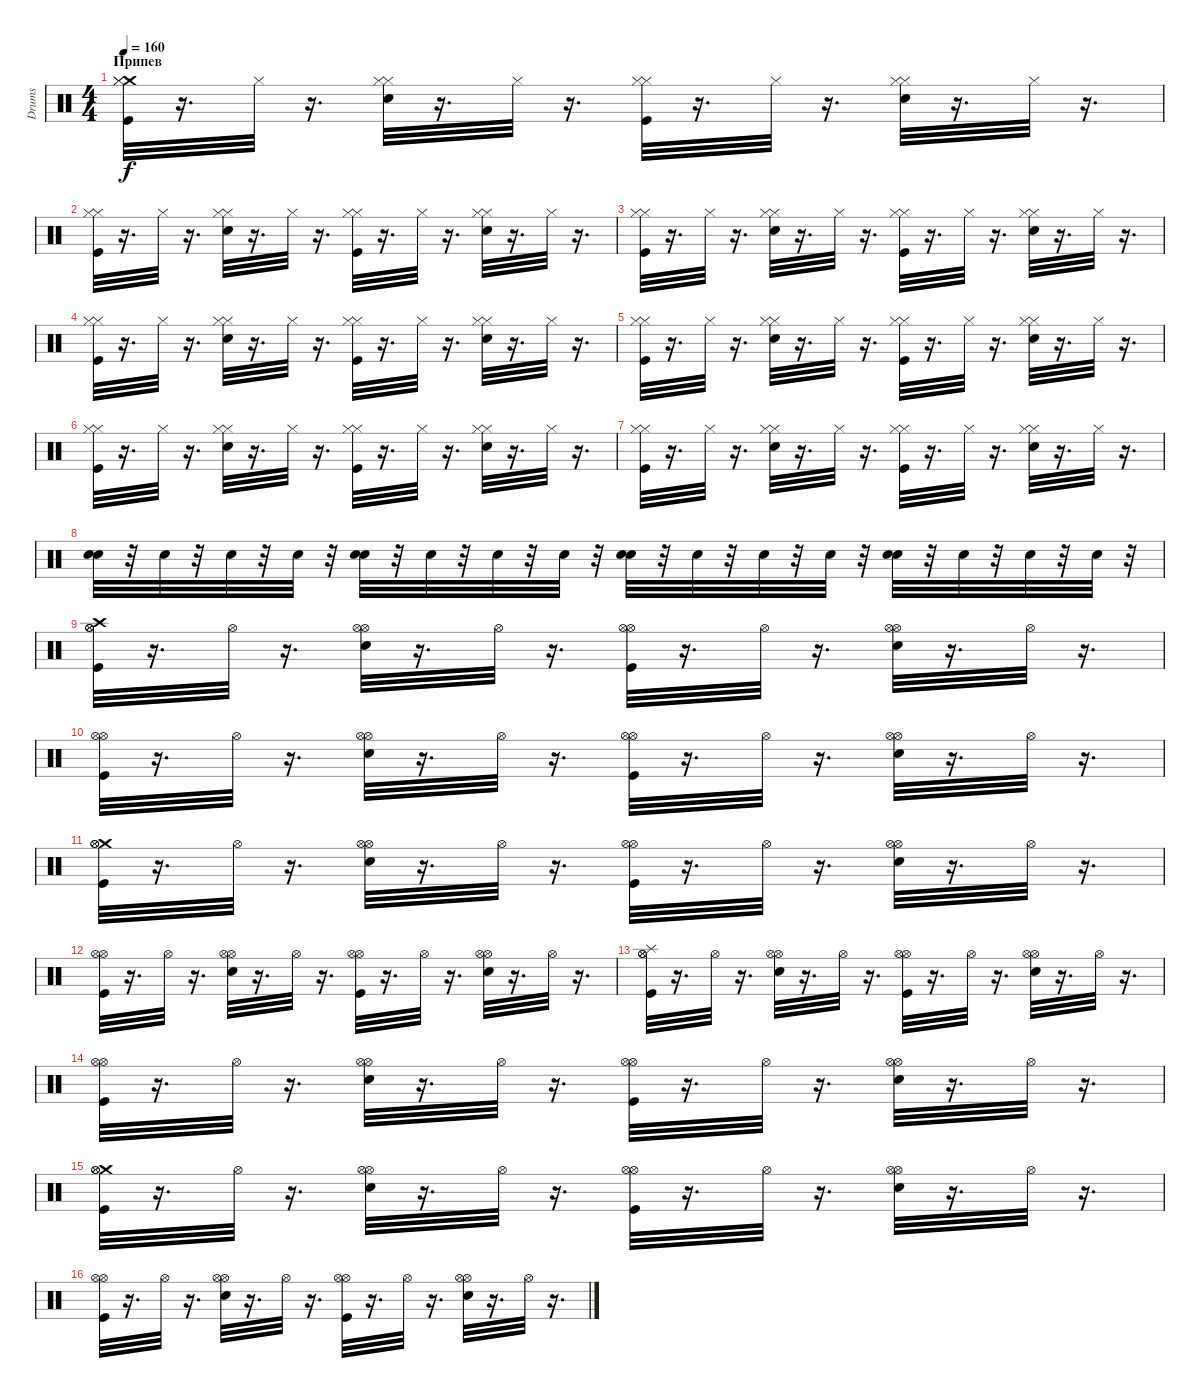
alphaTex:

\track ("Drums" "Drums") {instrument percussion}
\staff {score}
\articulation defaults
\ts (4 4)
\section ("" "Припев")
\tempo 160
\clef neutral
\ks c
("Crash medium (hit)" "Hi-Hat (closed)" "Hi-Hat (closed)" "Kick (hit)").32{dy f} r.16{d} "Hi-Hat (closed)".32 r.16{d} ("Hi-Hat (closed)" "Hi-Hat (closed)" "Snare (hit) 2").32 r.16{d} "Hi-Hat (closed)".32 r.16{d} ("Hi-Hat (closed)" "Hi-Hat (closed)" "Kick (hit)").32 r.16{d} "Hi-Hat (closed)".32 r.16{d} ("Hi-Hat (closed)" "Hi-Hat (closed)" "Snare (hit) 2").32 r.16{d} "Hi-Hat (closed)".32 r.16{d} |
("Hi-Hat (closed)" "Hi-Hat (closed)" "Kick (hit)").32 r.16{d} "Hi-Hat (closed)".32 r.16{d} ("Hi-Hat (closed)" "Hi-Hat (closed)" "Snare (hit) 2").32 r.16{d} "Hi-Hat (closed)".32 r.16{d} ("Hi-Hat (closed)" "Hi-Hat (closed)" "Kick (hit)").32 r.16{d} "Hi-Hat (closed)".32 r.16{d} ("Hi-Hat (closed)" "Hi-Hat (closed)" "Snare (hit) 2").32 r.16{d} "Hi-Hat (closed)".32 r.16{d} |
("Hi-Hat (closed)" "Hi-Hat (closed)" "Kick (hit)").32 r.16{d} "Hi-Hat (closed)".32 r.16{d} ("Hi-Hat (closed)" "Hi-Hat (closed)" "Snare (hit) 2").32 r.16{d} "Hi-Hat (closed)".32 r.16{d} ("Hi-Hat (closed)" "Hi-Hat (closed)" "Kick (hit)").32 r.16{d} "Hi-Hat (closed)".32 r.16{d} ("Hi-Hat (closed)" "Hi-Hat (closed)" "Snare (hit) 2").32 r.16{d} "Hi-Hat (closed)".32 r.16{d} |
("Hi-Hat (closed)" "Hi-Hat (closed)" "Kick (hit)").32 r.16{d} "Hi-Hat (closed)".32 r.16{d} ("Hi-Hat (closed)" "Hi-Hat (closed)" "Snare (hit) 2").32 r.16{d} "Hi-Hat (closed)".32 r.16{d} ("Hi-Hat (closed)" "Hi-Hat (closed)" "Kick (hit)").32 r.16{d} "Hi-Hat (closed)".32 r.16{d} ("Hi-Hat (closed)" "Hi-Hat (closed)" "Snare (hit) 2").32 r.16{d} "Hi-Hat (closed)".32 r.16{d} |
("Hi-Hat (closed)" "Hi-Hat (closed)" "Kick (hit)").32 r.16{d} "Hi-Hat (closed)".32 r.16{d} ("Hi-Hat (closed)" "Hi-Hat (closed)" "Snare (hit) 2").32 r.16{d} "Hi-Hat (closed)".32 r.16{d} ("Hi-Hat (closed)" "Hi-Hat (closed)" "Kick (hit)").32 r.16{d} "Hi-Hat (closed)".32 r.16{d} ("Hi-Hat (closed)" "Hi-Hat (closed)" "Snare (hit) 2").32 r.16{d} "Hi-Hat (closed)".32 r.16{d} |
("Hi-Hat (closed)" "Hi-Hat (closed)" "Kick (hit)").32 r.16{d} "Hi-Hat (closed)".32 r.16{d} ("Hi-Hat (closed)" "Hi-Hat (closed)" "Snare (hit) 2").32 r.16{d} "Hi-Hat (closed)".32 r.16{d} ("Hi-Hat (closed)" "Hi-Hat (closed)" "Kick (hit)").32 r.16{d} "Hi-Hat (closed)".32 r.16{d} ("Hi-Hat (closed)" "Hi-Hat (closed)" "Snare (hit) 2").32 r.16{d} "Hi-Hat (closed)".32 r.16{d} |
("Hi-Hat (closed)" "Hi-Hat (closed)" "Kick (hit)").32 r.16{d} "Hi-Hat (closed)".32 r.16{d} ("Hi-Hat (closed)" "Hi-Hat (closed)" "Snare (hit) 2").32 r.16{d} "Hi-Hat (closed)".32 r.16{d} ("Hi-Hat (closed)" "Hi-Hat (closed)" "Kick (hit)").32 r.16{d} "Hi-Hat (closed)".32 r.16{d} ("Hi-Hat (closed)" "Hi-Hat (closed)" "Snare (hit) 2").32 r.16{d} "Hi-Hat (closed)".32 r.16{d} |
("Snare (hit) 2" "Snare (hit) 2").32 r.32 "Snare (hit) 2".32 r.32 "Snare (hit) 2".32 r.32 "Snare (hit) 2".32 r.32 ("Snare (hit) 2" "Snare (hit) 2").32 r.32 "Snare (hit) 2".32 r.32 "Snare (hit) 2".32 r.32 "Snare (hit) 2".32 r.32 ("Snare (hit) 2" "Snare (hit) 2").32 r.32 "Snare (hit) 2".32 r.32 "Snare (hit) 2".32 r.32 "Snare (hit) 2".32 r.32 ("Snare (hit) 2" "Snare (hit) 2").32 r.32 "Snare (hit) 2".32 r.32 "Snare (hit) 2".32 r.32 "Snare (hit) 2".32 r.32 |
("Crash high (hit)" "Kick (hit)" "Hi-Hat (open)" "Hi-Hat (open)").32 r.16{d} "Hi-Hat (open)".32 r.16{d} ("Hi-Hat (open)" "Snare (hit) 2" "Hi-Hat (open)").32 r.16{d} "Hi-Hat (open)".32 r.16{d} ("Hi-Hat (open)" "Kick (hit)" "Hi-Hat (open)").32 r.16{d} "Hi-Hat (open)".32 r.16{d} ("Hi-Hat (open)" "Hi-Hat (open)" "Snare (hit) 2").32 r.16{d} "Hi-Hat (open)".32 r.16{d} |
("Hi-Hat (open)" "Hi-Hat (open)" "Kick (hit)").32 r.16{d} "Hi-Hat (open)".32 r.16{d} ("Snare (hit) 2" "Hi-Hat (open)" "Hi-Hat (open)").32 r.16{d} "Hi-Hat (open)".32 r.16{d} ("Kick (hit)" "Hi-Hat (open)" "Hi-Hat (open)").32 r.16{d} "Hi-Hat (open)".32 r.16{d} ("Hi-Hat (open)" "Hi-Hat (open)" "Snare (hit) 2").32 r.16{d} "Hi-Hat (open)".32 r.16{d} |
("Crash medium (hit)" "Hi-Hat (open)" "Kick (hit)" "Hi-Hat (open)").32 r.16{d} "Hi-Hat (open)".32 r.16{d} ("Hi-Hat (open)" "Snare (hit) 2" "Hi-Hat (open)").32 r.16{d} "Hi-Hat (open)".32 r.16{d} ("Kick (hit)" "Hi-Hat (open)" "Hi-Hat (open)").32 r.16{d} "Hi-Hat (open)".32 r.16{d} ("Hi-Hat (open)" "Hi-Hat (open)" "Snare (hit) 2").32 r.16{d} "Hi-Hat (open)".32 r.16{d} |
("Kick (hit)" "Hi-Hat (open)" "Hi-Hat (open)").32 r.16{d} "Hi-Hat (open)".32 r.16{d} ("Snare (hit) 2" "Hi-Hat (open)" "Hi-Hat (open)").32 r.16{d} "Hi-Hat (open)".32 r.16{d} ("Kick (hit)" "Hi-Hat (open)" "Hi-Hat (open)").32 r.16{d} "Hi-Hat (open)".32 r.16{d} ("Hi-Hat (open)" "Snare (hit) 2" "Hi-Hat (open)").32 r.16{d} "Hi-Hat (open)".32 r.16{d} |
("Splash (hit)" "Hi-Hat (open)" "Kick (hit)" "Hi-Hat (open)").32 r.16{d} "Hi-Hat (open)".32 r.16{d} ("Hi-Hat (open)" "Hi-Hat (open)" "Snare (hit) 2").32 r.16{d} "Hi-Hat (open)".32 r.16{d} ("Hi-Hat (open)" "Hi-Hat (open)" "Kick (hit)").32 r.16{d} "Hi-Hat (open)".32 r.16{d} ("Snare (hit) 2" "Hi-Hat (open)" "Hi-Hat (open)").32 r.16{d} "Hi-Hat (open)".32 r.16{d} |
("Kick (hit)" "Hi-Hat (open)" "Hi-Hat (open)").32 r.16{d} "Hi-Hat (open)".32 r.16{d} ("Snare (hit) 2" "Hi-Hat (open)" "Hi-Hat (open)").32 r.16{d} "Hi-Hat (open)".32 r.16{d} ("Hi-Hat (open)" "Kick (hit)" "Hi-Hat (open)").32 r.16{d} "Hi-Hat (open)".32 r.16{d} ("Hi-Hat (open)" "Snare (hit) 2" "Hi-Hat (open)").32 r.16{d} "Hi-Hat (open)".32 r.16{d} |
("Crash medium (hit)" "Kick (hit)" "Hi-Hat (open)" "Hi-Hat (open)").32 r.16{d} "Hi-Hat (open)".32 r.16{d} ("Hi-Hat (open)" "Hi-Hat (open)" "Snare (hit) 2").32 r.16{d} "Hi-Hat (open)".32 r.16{d} ("Kick (hit)" "Hi-Hat (open)" "Hi-Hat (open)").32 r.16{d} "Hi-Hat (open)".32 r.16{d} ("Snare (hit) 2" "Hi-Hat (open)" "Hi-Hat (open)").32 r.16{d} "Hi-Hat (open)".32 r.16{d} |
("Kick (hit)" "Hi-Hat (open)" "Hi-Hat (open)").32 r.16{d} "Hi-Hat (open)".32 r.16{d} ("Hi-Hat (open)" "Snare (hit) 2" "Hi-Hat (open)").32 r.16{d} "Hi-Hat (open)".32 r.16{d} ("Kick (hit)" "Hi-Hat (open)" "Hi-Hat (open)").32 r.16{d} "Hi-Hat (open)".32 r.16{d} ("Snare (hit) 2" "Hi-Hat (open)" "Hi-Hat (open)").32 r.16{d} "Hi-Hat (open)".32 r.16{d}
